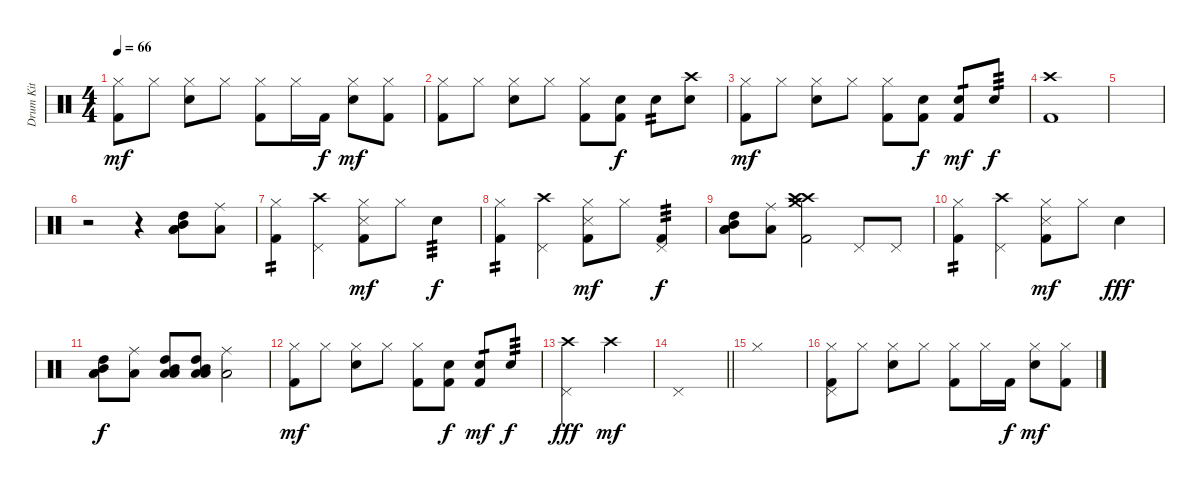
\track ("Drum Kit" "Drum Kit") {instrument percussion}
\staff {score}
\articulation defaults
\ts (4 4)
\tempo 66
\clef neutral
\ks c
("Hi-Hat (closed)" "Kick (hit) 2").8{dy mf} "Hi-Hat (closed)".8 ("Hi-Hat (closed)" "Snare (hit) 2").8 "Hi-Hat (closed)".8 ("Hi-Hat (closed)" "Kick (hit) 2").8 "Hi-Hat (closed)".16 "Kick (hit) 2".16{dy f} ("Hi-Hat (closed)" "Snare (hit) 2").8{dy mf} ("Hi-Hat (closed)" "Kick (hit) 2").8 |
("Hi-Hat (closed)" "Kick (hit) 2").8 "Hi-Hat (closed)".8 ("Hi-Hat (closed)" "Snare (hit) 2").8 "Hi-Hat (closed)".8 ("Hi-Hat (closed)" "Kick (hit) 2").8 ("Kick (hit) 2" "Snare (hit) 2").8{dy f} "Snare (hit) 2".8{tp 2} ("Snare (hit) 2" "Crash high (hit)").8 |
("Hi-Hat (closed)" "Kick (hit) 2").8{dy mf} "Hi-Hat (closed)".8 ("Hi-Hat (closed)" "Snare (hit) 2").8 "Hi-Hat (closed)".8 ("Hi-Hat (closed)" "Kick (hit) 2").8 ("Kick (hit) 2" "Snare (hit) 2").8{dy f} ("Snare (hit) 2" "Kick (hit) 2").8{tp 1 dy mf} "Snare (hit) 2".8{tp 3 dy f} |
("Crash high (hit)" "Kick (hit) 2").1 |
|
r.2 r.4 ("Mid Tom (hit)" "Low Tom (hit)" "High Tom (hit)" "Low Floor Tom (hit)").8 ("Low Floor Tom (hit)" "Ride (middle)").8 |
("Kick (hit) 2" "Hi-Hat (closed)").4{tp 2} ("Crash high (hit)" "Pedal Hi-Hat (hit)").4 ("Hi-Hat (closed)" "Snare (side stick) 3" "Kick (hit) 2").8{dy mf} "Hi-Hat (closed)".8 "Snare (hit) 2".4{tp 3 dy f} |
("Kick (hit) 2" "Hi-Hat (closed)").4{tp 2} ("Crash high (hit)" "Pedal Hi-Hat (hit)").4 ("Hi-Hat (closed)" "Snare (side stick) 3" "Kick (hit) 2").8{dy mf} "Hi-Hat (closed)".8 ("Pedal Hi-Hat (hit)" "Kick (hit) 2").4{tp 3 dy f} |
("Mid Tom (hit)" "Low Tom (hit)" "High Tom (hit)" "Low Floor Tom (hit)").8 ("Low Floor Tom (hit)" "Ride (middle)").8 ("Crash high (hit)" "Crash high (hit)" "Kick (hit) 2" "Crash medium (hit)").2 "Pedal Hi-Hat (hit)".8 "Pedal Hi-Hat (hit)".8 |
("Kick (hit) 2" "Hi-Hat (closed)").4{tp 2} ("Crash high (hit)" "Pedal Hi-Hat (hit)").4 ("Hi-Hat (closed)" "Snare (side stick) 3" "Kick (hit) 2").8{dy mf} "Hi-Hat (closed)".8 "Snare (hit) 2".4{dy fff} |
("Mid Tom (hit)" "Low Tom (hit)" "High Tom (hit)" "Low Floor Tom (hit)").8{dy f} ("Low Floor Tom (hit)" "Ride (middle)").8 ("Mid Tom (hit)" "Low Tom (hit)" "High Tom (hit)" "Low Floor Tom (hit)").8 ("Mid Tom (hit)" "Low Tom (hit)" "High Tom (hit)" "Low Floor Tom (hit)").8 ("Low Floor Tom (hit)" "Ride (middle)").2 |
("Hi-Hat (closed)" "Kick (hit) 2").8{dy mf} "Hi-Hat (closed)".8 ("Hi-Hat (closed)" "Snare (hit) 2").8 "Hi-Hat (closed)".8 ("Hi-Hat (closed)" "Kick (hit) 2").8 ("Kick (hit) 2" "Snare (hit) 2").8{dy f} ("Snare (hit) 2" "Kick (hit) 2").8{tp 1 dy mf} "Snare (hit) 2".8{tp 3 dy f} |
("Pedal Hi-Hat (hit)" "Crash high (hit)").2{dy fff} "Crash high (hit)".2{dy mf} |
\barLineRight lightlight "Pedal Hi-Hat (hit)".1
|
"Hi-Hat (closed)".1 |
("Hi-Hat (closed)" "Pedal Hi-Hat (hit)" "Kick (hit) 2").8 "Hi-Hat (closed)".8 ("Hi-Hat (closed)" "Snare (hit) 2").8 "Hi-Hat (closed)".8 ("Hi-Hat (closed)" "Kick (hit) 2").8 "Hi-Hat (closed)".16 "Kick (hit) 2".16{dy f} ("Hi-Hat (closed)" "Snare (hit) 2").8{dy mf} ("Hi-Hat (closed)" "Kick (hit) 2").8
